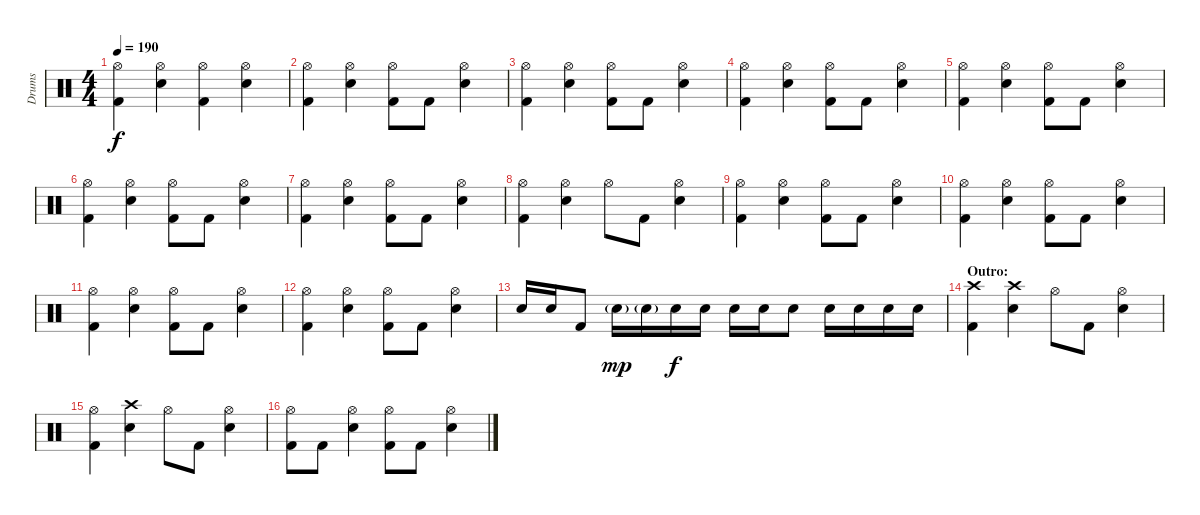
\track ("Drums" "Drums") {instrument percussion}
\staff {score}
\articulation defaults
\ts (4 4)
\tempo 190
\clef neutral
\ks c
("Hi-Hat (open)" "Kick (hit) 2").4{dy f} ("Hi-Hat (open)" "Electric Snare (hit)").4 ("Hi-Hat (open)" "Kick (hit) 2").4 ("Hi-Hat (open)" "Electric Snare (hit)").4 |
("Hi-Hat (open)" "Kick (hit) 2").4 ("Hi-Hat (open)" "Electric Snare (hit)").4 ("Hi-Hat (open)" "Kick (hit) 2").8 "Kick (hit) 2".8 ("Hi-Hat (open)" "Electric Snare (hit)").4 |
("Hi-Hat (open)" "Kick (hit) 2").4 ("Hi-Hat (open)" "Electric Snare (hit)").4 ("Hi-Hat (open)" "Kick (hit) 2").8 "Kick (hit) 2".8 ("Hi-Hat (open)" "Electric Snare (hit)").4 |
("Hi-Hat (open)" "Kick (hit) 2").4 ("Hi-Hat (open)" "Electric Snare (hit)").4 ("Hi-Hat (open)" "Kick (hit) 2").8 "Kick (hit) 2".8 ("Hi-Hat (open)" "Electric Snare (hit)").4 |
("Hi-Hat (open)" "Kick (hit) 2").4 ("Hi-Hat (open)" "Electric Snare (hit)").4 ("Hi-Hat (open)" "Kick (hit) 2").8 "Kick (hit) 2".8 ("Hi-Hat (open)" "Electric Snare (hit)").4 |
("Hi-Hat (open)" "Kick (hit) 2").4 ("Hi-Hat (open)" "Electric Snare (hit)").4 ("Hi-Hat (open)" "Kick (hit) 2").8 "Kick (hit) 2".8 ("Hi-Hat (open)" "Electric Snare (hit)").4 |
("Hi-Hat (open)" "Kick (hit) 2").4 ("Hi-Hat (open)" "Electric Snare (hit)").4 ("Hi-Hat (open)" "Kick (hit) 2").8 "Kick (hit) 2".8 ("Hi-Hat (open)" "Electric Snare (hit)").4 |
("Hi-Hat (open)" "Kick (hit) 2").4 ("Hi-Hat (open)" "Electric Snare (hit)").4 "Hi-Hat (open)".8 "Kick (hit) 2".8 ("Hi-Hat (open)" "Electric Snare (hit)").4 |
("Hi-Hat (open)" "Kick (hit) 2").4 ("Hi-Hat (open)" "Electric Snare (hit)").4 ("Hi-Hat (open)" "Kick (hit) 2").8 "Kick (hit) 2".8 ("Hi-Hat (open)" "Electric Snare (hit)").4 |
("Hi-Hat (open)" "Kick (hit) 2").4 ("Hi-Hat (open)" "Electric Snare (hit)").4 ("Hi-Hat (open)" "Kick (hit) 2").8 "Kick (hit) 2".8 ("Hi-Hat (open)" "Electric Snare (hit)").4 |
("Hi-Hat (open)" "Kick (hit) 2").4 ("Hi-Hat (open)" "Electric Snare (hit)").4 ("Hi-Hat (open)" "Kick (hit) 2").8 "Kick (hit) 2".8 ("Hi-Hat (open)" "Electric Snare (hit)").4 |
("Hi-Hat (open)" "Kick (hit) 2").4 ("Hi-Hat (open)" "Electric Snare (hit)").4 ("Hi-Hat (open)" "Kick (hit) 2").8 "Kick (hit) 2".8 ("Hi-Hat (open)" "Electric Snare (hit)").4 |
"Electric Snare (hit)".16 "Electric Snare (hit)".16 "Kick (hit) 2".8 "Electric Snare (hit)"{g}.16{dy mp} "Electric Snare (hit)"{g}.16 "Electric Snare (hit)".16{dy f} "Electric Snare (hit)".16 "Electric Snare (hit)".16 "Electric Snare (hit)".16 "Electric Snare (hit)".8 "Electric Snare (hit)".16 "Electric Snare (hit)".16 "Electric Snare (hit)".16 "Electric Snare (hit)".16 |
\section ("" "Outro:")
("Crash high (hit)" "Kick (hit) 2").4 ("Crash high (hit)" "Electric Snare (hit)").4 "Hi-Hat (open)".8 "Kick (hit) 2".8 ("Hi-Hat (open)" "Electric Snare (hit)").4 |
("Hi-Hat (open)" "Kick (hit) 2").4 ("Crash high (hit)" "Electric Snare (hit)").4 "Hi-Hat (open)".8 "Kick (hit) 2".8 ("Hi-Hat (open)" "Electric Snare (hit)").4 |
("Hi-Hat (open)" "Kick (hit) 2").8 "Kick (hit) 2".8 ("Hi-Hat (open)" "Electric Snare (hit)").4 ("Hi-Hat (open)" "Kick (hit) 2").8 "Kick (hit) 2".8 ("Hi-Hat (open)" "Electric Snare (hit)").4
